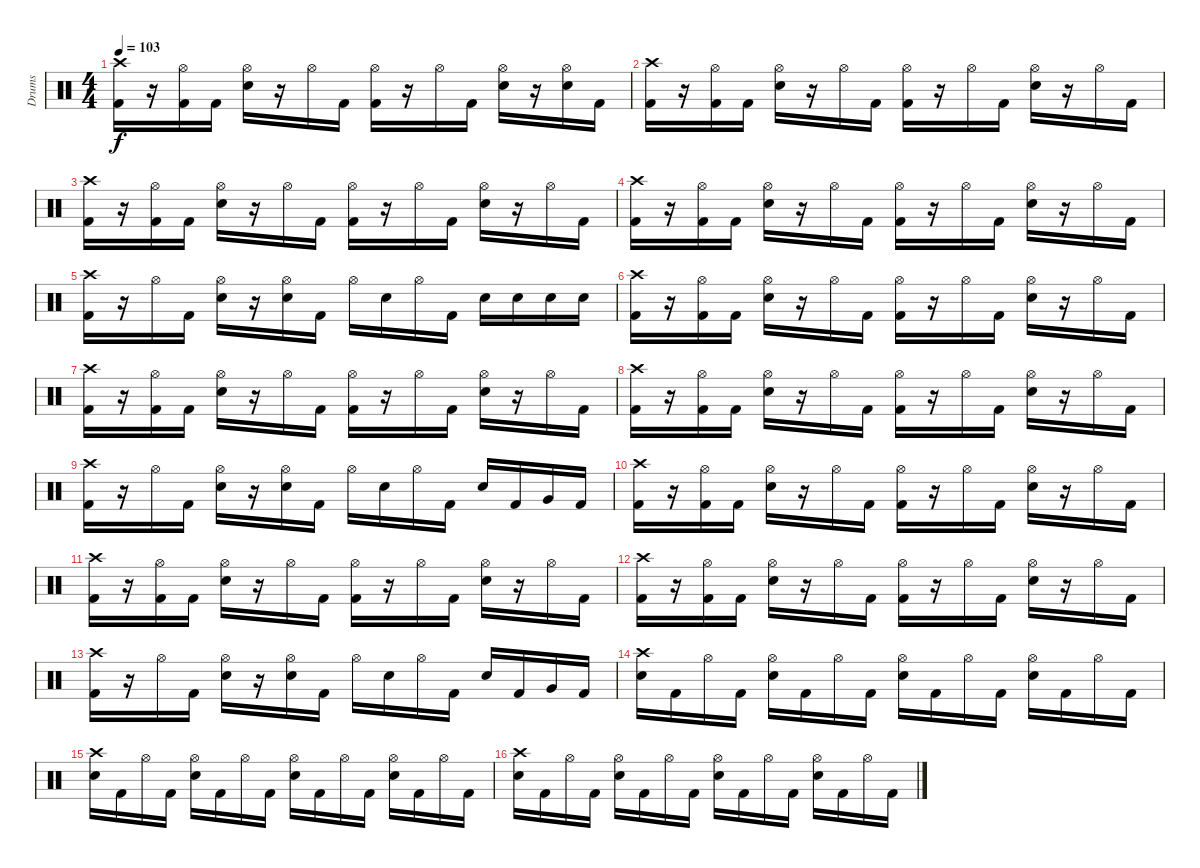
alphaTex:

\track ("Drums" "Drums") {instrument percussion}
\staff {score}
\articulation defaults
\ts (4 4)
\tempo 103
\clef neutral
\ks c
("Crash high (hit)" "Kick (hit) 2").16{dy f} r.16 ("Hi-Hat (open)" "Kick (hit) 2").16 "Kick (hit) 2".16 ("Hi-Hat (open)" "Electric Snare (hit)").16 r.16 "Hi-Hat (open)".16 "Kick (hit) 2".16 ("Hi-Hat (open)" "Kick (hit) 2").16 r.16 "Hi-Hat (open)".16 "Kick (hit) 2".16 ("Hi-Hat (open)" "Electric Snare (hit)").16 r.16 ("Hi-Hat (open)" "Electric Snare (hit)").16 "Kick (hit) 2".16 |
("Crash high (hit)" "Kick (hit) 2").16 r.16 ("Hi-Hat (open)" "Kick (hit) 2").16 "Kick (hit) 2".16 ("Hi-Hat (open)" "Electric Snare (hit)").16 r.16 "Hi-Hat (open)".16 "Kick (hit) 2".16 ("Hi-Hat (open)" "Kick (hit) 2").16 r.16 "Hi-Hat (open)".16 "Kick (hit) 2".16 ("Hi-Hat (open)" "Electric Snare (hit)").16 r.16 "Hi-Hat (open)".16 "Kick (hit) 2".16 |
("Crash high (hit)" "Kick (hit) 2").16 r.16 ("Hi-Hat (open)" "Kick (hit) 2").16 "Kick (hit) 2".16 ("Hi-Hat (open)" "Electric Snare (hit)").16 r.16 "Hi-Hat (open)".16 "Kick (hit) 2".16 ("Hi-Hat (open)" "Kick (hit) 2").16 r.16 "Hi-Hat (open)".16 "Kick (hit) 2".16 ("Hi-Hat (open)" "Electric Snare (hit)").16 r.16 "Hi-Hat (open)".16 "Kick (hit) 2".16 |
("Crash high (hit)" "Kick (hit) 2").16 r.16 ("Hi-Hat (open)" "Kick (hit) 2").16 "Kick (hit) 2".16 ("Hi-Hat (open)" "Electric Snare (hit)").16 r.16 "Hi-Hat (open)".16 "Kick (hit) 2".16 ("Hi-Hat (open)" "Kick (hit) 2").16 r.16 "Hi-Hat (open)".16 "Kick (hit) 2".16 ("Hi-Hat (open)" "Electric Snare (hit)").16 r.16 "Hi-Hat (open)".16 "Kick (hit) 2".16 |
("Crash high (hit)" "Kick (hit) 2").16 r.16 "Hi-Hat (open)".16 "Kick (hit) 2".16 ("Hi-Hat (open)" "Electric Snare (hit)").16 r.16 ("Hi-Hat (open)" "Electric Snare (hit)").16 "Kick (hit) 2".16 "Hi-Hat (open)".16 "Electric Snare (hit)".16 "Hi-Hat (open)".16 "Kick (hit) 2".16 "Electric Snare (hit)".16 "Electric Snare (hit)".16 "Electric Snare (hit)".16 "Electric Snare (hit)".16 |
("Crash high (hit)" "Kick (hit) 2").16 r.16 ("Hi-Hat (open)" "Kick (hit) 2").16 "Kick (hit) 2".16 ("Hi-Hat (open)" "Electric Snare (hit)").16 r.16 "Hi-Hat (open)".16 "Kick (hit) 2".16 ("Hi-Hat (open)" "Kick (hit) 2").16 r.16 "Hi-Hat (open)".16 "Kick (hit) 2".16 ("Hi-Hat (open)" "Electric Snare (hit)").16 r.16 "Hi-Hat (open)".16 "Kick (hit) 2".16 |
("Crash high (hit)" "Kick (hit) 2").16 r.16 ("Hi-Hat (open)" "Kick (hit) 2").16 "Kick (hit) 2".16 ("Hi-Hat (open)" "Electric Snare (hit)").16 r.16 "Hi-Hat (open)".16 "Kick (hit) 2".16 ("Hi-Hat (open)" "Kick (hit) 2").16 r.16 "Hi-Hat (open)".16 "Kick (hit) 2".16 ("Hi-Hat (open)" "Electric Snare (hit)").16 r.16 "Hi-Hat (open)".16 "Kick (hit) 2".16 |
("Crash high (hit)" "Kick (hit) 2").16 r.16 ("Hi-Hat (open)" "Kick (hit) 2").16 "Kick (hit) 2".16 ("Hi-Hat (open)" "Electric Snare (hit)").16 r.16 "Hi-Hat (open)".16 "Kick (hit) 2".16 ("Hi-Hat (open)" "Kick (hit) 2").16 r.16 "Hi-Hat (open)".16 "Kick (hit) 2".16 ("Hi-Hat (open)" "Electric Snare (hit)").16 r.16 "Hi-Hat (open)".16 "Kick (hit) 2".16 |
("Crash high (hit)" "Kick (hit) 2").16 r.16 "Hi-Hat (open)".16 "Kick (hit) 2".16 ("Hi-Hat (open)" "Electric Snare (hit)").16 r.16 ("Hi-Hat (open)" "Electric Snare (hit)").16 "Kick (hit) 2".16 "Hi-Hat (open)".16 "Electric Snare (hit)".16 "Hi-Hat (open)".16 "Kick (hit) 2".16 "Electric Snare (hit)".16 "Kick (hit) 2".16 "Very Low Tom (hit)".16 "Kick (hit) 2".16 |
("Crash high (hit)" "Kick (hit) 2").16 r.16 ("Hi-Hat (open)" "Kick (hit) 2").16 "Kick (hit) 2".16 ("Hi-Hat (open)" "Electric Snare (hit)").16 r.16 "Hi-Hat (open)".16 "Kick (hit) 2".16 ("Hi-Hat (open)" "Kick (hit) 2").16 r.16 "Hi-Hat (open)".16 "Kick (hit) 2".16 ("Hi-Hat (open)" "Electric Snare (hit)").16 r.16 "Hi-Hat (open)".16 "Kick (hit) 2".16 |
("Crash high (hit)" "Kick (hit) 2").16 r.16 ("Hi-Hat (open)" "Kick (hit) 2").16 "Kick (hit) 2".16 ("Hi-Hat (open)" "Electric Snare (hit)").16 r.16 "Hi-Hat (open)".16 "Kick (hit) 2".16 ("Hi-Hat (open)" "Kick (hit) 2").16 r.16 "Hi-Hat (open)".16 "Kick (hit) 2".16 ("Hi-Hat (open)" "Electric Snare (hit)").16 r.16 "Hi-Hat (open)".16 "Kick (hit) 2".16 |
("Crash high (hit)" "Kick (hit) 2").16 r.16 ("Hi-Hat (open)" "Kick (hit) 2").16 "Kick (hit) 2".16 ("Hi-Hat (open)" "Electric Snare (hit)").16 r.16 "Hi-Hat (open)".16 "Kick (hit) 2".16 ("Hi-Hat (open)" "Kick (hit) 2").16 r.16 "Hi-Hat (open)".16 "Kick (hit) 2".16 ("Hi-Hat (open)" "Electric Snare (hit)").16 r.16 "Hi-Hat (open)".16 "Kick (hit) 2".16 |
("Crash high (hit)" "Kick (hit) 2").16 r.16 "Hi-Hat (open)".16 "Kick (hit) 2".16 ("Hi-Hat (open)" "Electric Snare (hit)").16 r.16 ("Hi-Hat (open)" "Electric Snare (hit)").16 "Kick (hit) 2".16 "Hi-Hat (open)".16 "Electric Snare (hit)".16 "Hi-Hat (open)".16 "Kick (hit) 2".16 "Electric Snare (hit)".16 "Kick (hit) 2".16 "Very Low Tom (hit)".16 "Kick (hit) 2".16 |
("Crash high (hit)" "Electric Snare (hit)").16 "Kick (hit) 2".16 "Hi-Hat (open)".16 "Kick (hit) 2".16 ("Hi-Hat (open)" "Electric Snare (hit)").16 "Kick (hit) 2".16 "Hi-Hat (open)".16 "Kick (hit) 2".16 ("Hi-Hat (open)" "Electric Snare (hit)").16 "Kick (hit) 2".16 "Hi-Hat (open)".16 "Kick (hit) 2".16 ("Hi-Hat (open)" "Electric Snare (hit)").16 "Kick (hit) 2".16 "Hi-Hat (open)".16 "Kick (hit) 2".16 |
("Crash high (hit)" "Electric Snare (hit)").16 "Kick (hit) 2".16 "Hi-Hat (open)".16 "Kick (hit) 2".16 ("Hi-Hat (open)" "Electric Snare (hit)").16 "Kick (hit) 2".16 "Hi-Hat (open)".16 "Kick (hit) 2".16 ("Hi-Hat (open)" "Electric Snare (hit)").16 "Kick (hit) 2".16 "Hi-Hat (open)".16 "Kick (hit) 2".16 ("Hi-Hat (open)" "Electric Snare (hit)").16 "Kick (hit) 2".16 "Hi-Hat (open)".16 "Kick (hit) 2".16 |
("Crash high (hit)" "Electric Snare (hit)").16 "Kick (hit) 2".16 "Hi-Hat (open)".16 "Kick (hit) 2".16 ("Hi-Hat (open)" "Electric Snare (hit)").16 "Kick (hit) 2".16 "Hi-Hat (open)".16 "Kick (hit) 2".16 ("Hi-Hat (open)" "Electric Snare (hit)").16 "Kick (hit) 2".16 "Hi-Hat (open)".16 "Kick (hit) 2".16 ("Hi-Hat (open)" "Electric Snare (hit)").16 "Kick (hit) 2".16 "Hi-Hat (open)".16 "Kick (hit) 2".16
